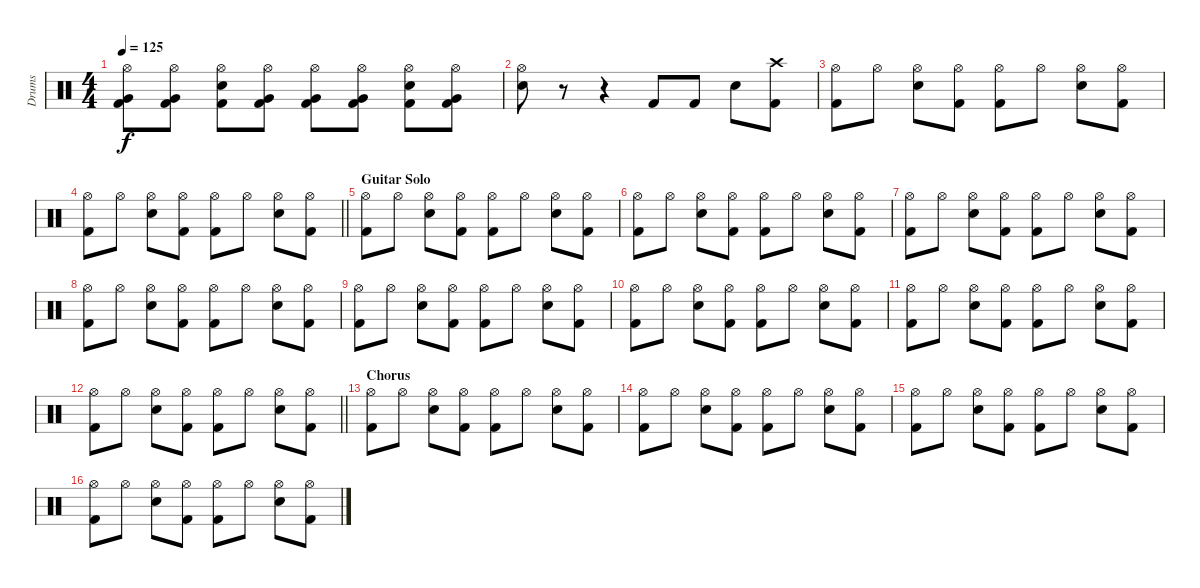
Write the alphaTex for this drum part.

\track ("Drums" "Drums") {instrument percussion}
\staff {score}
\articulation defaults
\ts (4 4)
\tempo 125
\clef neutral
\ks c
("Very Low Tom (hit)" "Kick (hit) 2" "Hi-Hat (open)").8{dy f} ("Very Low Tom (hit)" "Kick (hit) 2" "Hi-Hat (open)").8 ("Electric Snare (hit)" "Kick (hit) 2" "Hi-Hat (open)").8 ("Very Low Tom (hit)" "Kick (hit) 2" "Hi-Hat (open)").8 ("Very Low Tom (hit)" "Kick (hit) 2" "Hi-Hat (open)").8 ("Very Low Tom (hit)" "Kick (hit) 2" "Hi-Hat (open)").8 ("Electric Snare (hit)" "Kick (hit) 2" "Hi-Hat (open)").8 ("Very Low Tom (hit)" "Kick (hit) 2" "Hi-Hat (open)").8 |
("Electric Snare (hit)" "Hi-Hat (open)").8 r.8 r.4 "Kick (hit) 2".8 "Kick (hit) 2".8 "Electric Snare (hit)".8 ("Kick (hit) 2" "Crash high (hit)").8 |
("Kick (hit) 2" "Hi-Hat (open)").8 "Hi-Hat (open)".8 ("Electric Snare (hit)" "Hi-Hat (open)").8 ("Kick (hit) 2" "Hi-Hat (open)").8 ("Kick (hit) 2" "Hi-Hat (open)").8 "Hi-Hat (open)".8 ("Electric Snare (hit)" "Hi-Hat (open)").8 ("Kick (hit) 2" "Hi-Hat (open)").8 |
\barLineRight lightlight
("Kick (hit) 2" "Hi-Hat (open)").8 "Hi-Hat (open)".8 ("Electric Snare (hit)" "Hi-Hat (open)").8 ("Kick (hit) 2" "Hi-Hat (open)").8 ("Kick (hit) 2" "Hi-Hat (open)").8 "Hi-Hat (open)".8 ("Electric Snare (hit)" "Hi-Hat (open)").8 ("Kick (hit) 2" "Hi-Hat (open)").8 |
\section ("" "Guitar Solo")
("Kick (hit) 2" "Hi-Hat (open)").8 "Hi-Hat (open)".8 ("Electric Snare (hit)" "Hi-Hat (open)").8 ("Kick (hit) 2" "Hi-Hat (open)").8 ("Kick (hit) 2" "Hi-Hat (open)").8 "Hi-Hat (open)".8 ("Electric Snare (hit)" "Hi-Hat (open)").8 ("Kick (hit) 2" "Hi-Hat (open)").8 |
("Kick (hit) 2" "Hi-Hat (open)").8 "Hi-Hat (open)".8 ("Electric Snare (hit)" "Hi-Hat (open)").8 ("Kick (hit) 2" "Hi-Hat (open)").8 ("Kick (hit) 2" "Hi-Hat (open)").8 "Hi-Hat (open)".8 ("Electric Snare (hit)" "Hi-Hat (open)").8 ("Kick (hit) 2" "Hi-Hat (open)").8 |
("Kick (hit) 2" "Hi-Hat (open)").8 "Hi-Hat (open)".8 ("Electric Snare (hit)" "Hi-Hat (open)").8 ("Kick (hit) 2" "Hi-Hat (open)").8 ("Kick (hit) 2" "Hi-Hat (open)").8 "Hi-Hat (open)".8 ("Electric Snare (hit)" "Hi-Hat (open)").8 ("Kick (hit) 2" "Hi-Hat (open)").8 |
("Kick (hit) 2" "Hi-Hat (open)").8 "Hi-Hat (open)".8 ("Electric Snare (hit)" "Hi-Hat (open)").8 ("Kick (hit) 2" "Hi-Hat (open)").8 ("Kick (hit) 2" "Hi-Hat (open)").8 "Hi-Hat (open)".8 ("Electric Snare (hit)" "Hi-Hat (open)").8 ("Kick (hit) 2" "Hi-Hat (open)").8 |
("Kick (hit) 2" "Hi-Hat (open)").8 "Hi-Hat (open)".8 ("Electric Snare (hit)" "Hi-Hat (open)").8 ("Kick (hit) 2" "Hi-Hat (open)").8 ("Kick (hit) 2" "Hi-Hat (open)").8 "Hi-Hat (open)".8 ("Electric Snare (hit)" "Hi-Hat (open)").8 ("Kick (hit) 2" "Hi-Hat (open)").8 |
("Kick (hit) 2" "Hi-Hat (open)").8 "Hi-Hat (open)".8 ("Electric Snare (hit)" "Hi-Hat (open)").8 ("Kick (hit) 2" "Hi-Hat (open)").8 ("Kick (hit) 2" "Hi-Hat (open)").8 "Hi-Hat (open)".8 ("Electric Snare (hit)" "Hi-Hat (open)").8 ("Kick (hit) 2" "Hi-Hat (open)").8 |
("Kick (hit) 2" "Hi-Hat (open)").8 "Hi-Hat (open)".8 ("Electric Snare (hit)" "Hi-Hat (open)").8 ("Kick (hit) 2" "Hi-Hat (open)").8 ("Kick (hit) 2" "Hi-Hat (open)").8 "Hi-Hat (open)".8 ("Electric Snare (hit)" "Hi-Hat (open)").8 ("Kick (hit) 2" "Hi-Hat (open)").8 |
\barLineRight lightlight
("Kick (hit) 2" "Hi-Hat (open)").8 "Hi-Hat (open)".8 ("Electric Snare (hit)" "Hi-Hat (open)").8 ("Kick (hit) 2" "Hi-Hat (open)").8 ("Kick (hit) 2" "Hi-Hat (open)").8 "Hi-Hat (open)".8 ("Electric Snare (hit)" "Hi-Hat (open)").8 ("Kick (hit) 2" "Hi-Hat (open)").8 |
\section ("" "Chorus")
("Kick (hit) 2" "Hi-Hat (open)").8 "Hi-Hat (open)".8 ("Electric Snare (hit)" "Hi-Hat (open)").8 ("Kick (hit) 2" "Hi-Hat (open)").8 ("Kick (hit) 2" "Hi-Hat (open)").8 "Hi-Hat (open)".8 ("Electric Snare (hit)" "Hi-Hat (open)").8 ("Kick (hit) 2" "Hi-Hat (open)").8 |
("Kick (hit) 2" "Hi-Hat (open)").8 "Hi-Hat (open)".8 ("Electric Snare (hit)" "Hi-Hat (open)").8 ("Kick (hit) 2" "Hi-Hat (open)").8 ("Kick (hit) 2" "Hi-Hat (open)").8 "Hi-Hat (open)".8 ("Electric Snare (hit)" "Hi-Hat (open)").8 ("Kick (hit) 2" "Hi-Hat (open)").8 |
("Kick (hit) 2" "Hi-Hat (open)").8 "Hi-Hat (open)".8 ("Electric Snare (hit)" "Hi-Hat (open)").8 ("Kick (hit) 2" "Hi-Hat (open)").8 ("Kick (hit) 2" "Hi-Hat (open)").8 "Hi-Hat (open)".8 ("Electric Snare (hit)" "Hi-Hat (open)").8 ("Kick (hit) 2" "Hi-Hat (open)").8 |
("Kick (hit) 2" "Hi-Hat (open)").8 "Hi-Hat (open)".8 ("Electric Snare (hit)" "Hi-Hat (open)").8 ("Kick (hit) 2" "Hi-Hat (open)").8 ("Kick (hit) 2" "Hi-Hat (open)").8 "Hi-Hat (open)".8 ("Electric Snare (hit)" "Hi-Hat (open)").8 ("Kick (hit) 2" "Hi-Hat (open)").8
